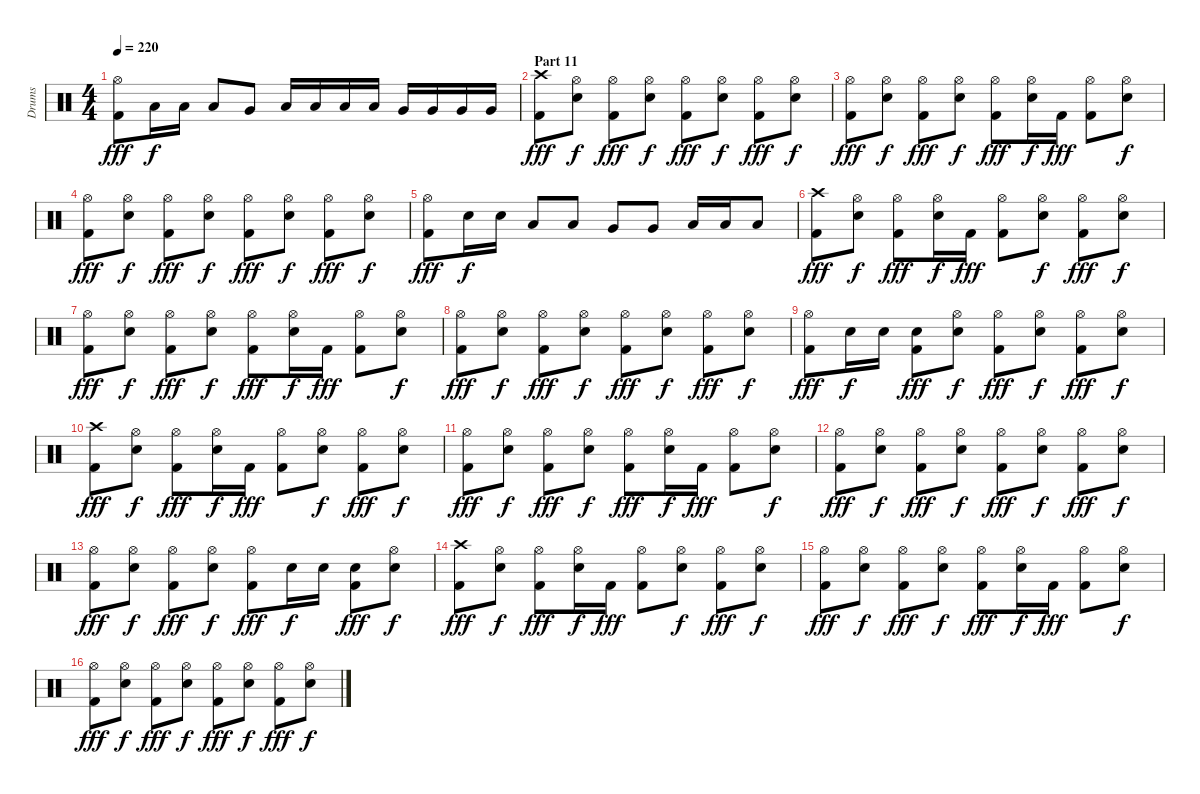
\track ("Drums" "Drums") {instrument percussion}
\staff {score}
\articulation defaults
\ts (4 4)
\tempo 220
\clef neutral
\ks c
("Hi-Hat (open)" "Kick (hit) 2").8{dy fff} "Low Tom (hit)".16{dy f} "Low Tom (hit)".16 "Low Tom (hit)".8 "Very Low Tom (hit)".8 "Low Tom (hit)".16 "Low Tom (hit)".16 "Low Tom (hit)".16 "Low Tom (hit)".16 "Very Low Tom (hit)".16 "Very Low Tom (hit)".16 "Very Low Tom (hit)".16 "Very Low Tom (hit)".16 |
\section ("" "Part 11")
("Crash high (hit)" "Kick (hit) 2").8{dy fff} ("Hi-Hat (open)" "Electric Snare (hit)").8{dy f} ("Hi-Hat (open)" "Kick (hit) 2").8{dy fff} ("Hi-Hat (open)" "Electric Snare (hit)").8{dy f} ("Hi-Hat (open)" "Kick (hit) 2").8{dy fff} ("Hi-Hat (open)" "Electric Snare (hit)").8{dy f} ("Hi-Hat (open)" "Kick (hit) 2").8{dy fff} ("Hi-Hat (open)" "Electric Snare (hit)").8{dy f} |
("Hi-Hat (open)" "Kick (hit) 2").8{dy fff} ("Hi-Hat (open)" "Electric Snare (hit)").8{dy f} ("Hi-Hat (open)" "Kick (hit) 2").8{dy fff} ("Hi-Hat (open)" "Electric Snare (hit)").8{dy f} ("Hi-Hat (open)" "Kick (hit) 2").8{dy fff} ("Hi-Hat (open)" "Electric Snare (hit)").16{dy f} "Kick (hit) 2".16{dy fff} ("Hi-Hat (open)" "Kick (hit) 2").8 ("Hi-Hat (open)" "Electric Snare (hit)").8{dy f} |
("Hi-Hat (open)" "Kick (hit) 2").8{dy fff} ("Hi-Hat (open)" "Electric Snare (hit)").8{dy f} ("Hi-Hat (open)" "Kick (hit) 2").8{dy fff} ("Hi-Hat (open)" "Electric Snare (hit)").8{dy f} ("Hi-Hat (open)" "Kick (hit) 2").8{dy fff} ("Hi-Hat (open)" "Electric Snare (hit)").8{dy f} ("Hi-Hat (open)" "Kick (hit) 2").8{dy fff} ("Hi-Hat (open)" "Electric Snare (hit)").8{dy f} |
("Hi-Hat (open)" "Kick (hit) 2").8{dy fff} "Electric Snare (hit)".16{dy f} "Electric Snare (hit)".16 "Low Tom (hit)".8 "Low Tom (hit)".8 "Very Low Tom (hit)".8 "Very Low Tom (hit)".8 "Low Tom (hit)".16 "Low Tom (hit)".16 "Low Floor Tom (hit)".8 |
("Crash high (hit)" "Kick (hit) 2").8{dy fff} ("Hi-Hat (open)" "Electric Snare (hit)").8{dy f} ("Hi-Hat (open)" "Kick (hit) 2").8{dy fff} ("Hi-Hat (open)" "Electric Snare (hit)").16{dy f} "Kick (hit) 2".16{dy fff} ("Hi-Hat (open)" "Kick (hit) 2").8 ("Hi-Hat (open)" "Electric Snare (hit)").8{dy f} ("Hi-Hat (open)" "Kick (hit) 2").8{dy fff} ("Hi-Hat (open)" "Electric Snare (hit)").8{dy f} |
("Hi-Hat (open)" "Kick (hit) 2").8{dy fff} ("Hi-Hat (open)" "Electric Snare (hit)").8{dy f} ("Hi-Hat (open)" "Kick (hit) 2").8{dy fff} ("Hi-Hat (open)" "Electric Snare (hit)").8{dy f} ("Hi-Hat (open)" "Kick (hit) 2").8{dy fff} ("Hi-Hat (open)" "Electric Snare (hit)").16{dy f} "Kick (hit) 2".16{dy fff} ("Hi-Hat (open)" "Kick (hit) 2").8 ("Hi-Hat (open)" "Electric Snare (hit)").8{dy f} |
("Hi-Hat (open)" "Kick (hit) 2").8{dy fff} ("Hi-Hat (open)" "Electric Snare (hit)").8{dy f} ("Hi-Hat (open)" "Kick (hit) 2").8{dy fff} ("Hi-Hat (open)" "Electric Snare (hit)").8{dy f} ("Hi-Hat (open)" "Kick (hit) 2").8{dy fff} ("Hi-Hat (open)" "Electric Snare (hit)").8{dy f} ("Hi-Hat (open)" "Kick (hit) 2").8{dy fff} ("Hi-Hat (open)" "Electric Snare (hit)").8{dy f} |
("Hi-Hat (open)" "Kick (hit) 2").8{dy fff} "Electric Snare (hit)".16{dy f} "Electric Snare (hit)".16 ("Electric Snare (hit)" "Kick (hit) 2").8{dy fff} ("Hi-Hat (open)" "Electric Snare (hit)").8{dy f} ("Hi-Hat (open)" "Kick (hit) 2").8{dy fff} ("Hi-Hat (open)" "Electric Snare (hit)").8{dy f} ("Hi-Hat (open)" "Kick (hit) 2").8{dy fff} ("Hi-Hat (open)" "Electric Snare (hit)").8{dy f} |
("Crash high (hit)" "Kick (hit) 2").8{dy fff} ("Hi-Hat (open)" "Electric Snare (hit)").8{dy f} ("Hi-Hat (open)" "Kick (hit) 2").8{dy fff} ("Hi-Hat (open)" "Electric Snare (hit)").16{dy f} "Kick (hit) 2".16{dy fff} ("Hi-Hat (open)" "Kick (hit) 2").8 ("Hi-Hat (open)" "Electric Snare (hit)").8{dy f} ("Hi-Hat (open)" "Kick (hit) 2").8{dy fff} ("Hi-Hat (open)" "Electric Snare (hit)").8{dy f} |
("Hi-Hat (open)" "Kick (hit) 2").8{dy fff} ("Hi-Hat (open)" "Electric Snare (hit)").8{dy f} ("Hi-Hat (open)" "Kick (hit) 2").8{dy fff} ("Hi-Hat (open)" "Electric Snare (hit)").8{dy f} ("Hi-Hat (open)" "Kick (hit) 2").8{dy fff} ("Hi-Hat (open)" "Electric Snare (hit)").16{dy f} "Kick (hit) 2".16{dy fff} ("Hi-Hat (open)" "Kick (hit) 2").8 ("Hi-Hat (open)" "Electric Snare (hit)").8{dy f} |
("Hi-Hat (open)" "Kick (hit) 2").8{dy fff} ("Hi-Hat (open)" "Electric Snare (hit)").8{dy f} ("Hi-Hat (open)" "Kick (hit) 2").8{dy fff} ("Hi-Hat (open)" "Electric Snare (hit)").8{dy f} ("Hi-Hat (open)" "Kick (hit) 2").8{dy fff} ("Hi-Hat (open)" "Electric Snare (hit)").8{dy f} ("Hi-Hat (open)" "Kick (hit) 2").8{dy fff} ("Hi-Hat (open)" "Electric Snare (hit)").8{dy f} |
("Hi-Hat (open)" "Kick (hit) 2").8{dy fff} ("Hi-Hat (open)" "Electric Snare (hit)").8{dy f} ("Hi-Hat (open)" "Kick (hit) 2").8{dy fff} ("Hi-Hat (open)" "Electric Snare (hit)").8{dy f} ("Hi-Hat (open)" "Kick (hit) 2").8{dy fff} "Electric Snare (hit)".16{dy f} "Electric Snare (hit)".16 ("Electric Snare (hit)" "Kick (hit) 2").8{dy fff} ("Hi-Hat (open)" "Electric Snare (hit)").8{dy f} |
("Crash high (hit)" "Kick (hit) 2").8{dy fff} ("Hi-Hat (open)" "Electric Snare (hit)").8{dy f} ("Hi-Hat (open)" "Kick (hit) 2").8{dy fff} ("Hi-Hat (open)" "Electric Snare (hit)").16{dy f} "Kick (hit) 2".16{dy fff} ("Hi-Hat (open)" "Kick (hit) 2").8 ("Hi-Hat (open)" "Electric Snare (hit)").8{dy f} ("Hi-Hat (open)" "Kick (hit) 2").8{dy fff} ("Hi-Hat (open)" "Electric Snare (hit)").8{dy f} |
("Hi-Hat (open)" "Kick (hit) 2").8{dy fff} ("Hi-Hat (open)" "Electric Snare (hit)").8{dy f} ("Hi-Hat (open)" "Kick (hit) 2").8{dy fff} ("Hi-Hat (open)" "Electric Snare (hit)").8{dy f} ("Hi-Hat (open)" "Kick (hit) 2").8{dy fff} ("Hi-Hat (open)" "Electric Snare (hit)").16{dy f} "Kick (hit) 2".16{dy fff} ("Hi-Hat (open)" "Kick (hit) 2").8 ("Hi-Hat (open)" "Electric Snare (hit)").8{dy f} |
("Hi-Hat (open)" "Kick (hit) 2").8{dy fff} ("Hi-Hat (open)" "Electric Snare (hit)").8{dy f} ("Hi-Hat (open)" "Kick (hit) 2").8{dy fff} ("Hi-Hat (open)" "Electric Snare (hit)").8{dy f} ("Hi-Hat (open)" "Kick (hit) 2").8{dy fff} ("Hi-Hat (open)" "Electric Snare (hit)").8{dy f} ("Hi-Hat (open)" "Kick (hit) 2").8{dy fff} ("Hi-Hat (open)" "Electric Snare (hit)").8{dy f}
